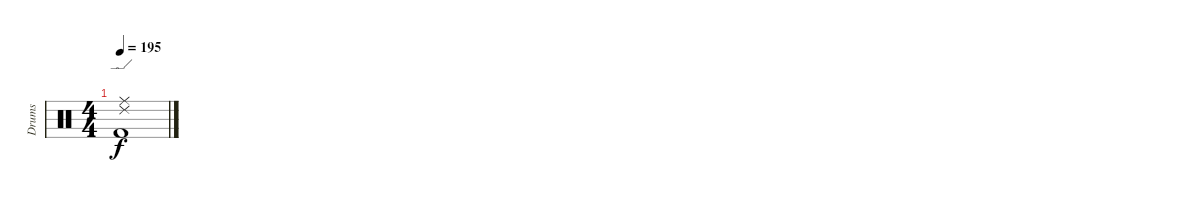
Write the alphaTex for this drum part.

\track ("Drums" "Drums") {instrument percussion}
\staff {score}
\articulation defaults
\ts (4 4)
\tempo 195
\clef neutral
\ks c
("Ride (edge) 2" "Ride (middle)" "Kick (hit) 2").1{dy f}
